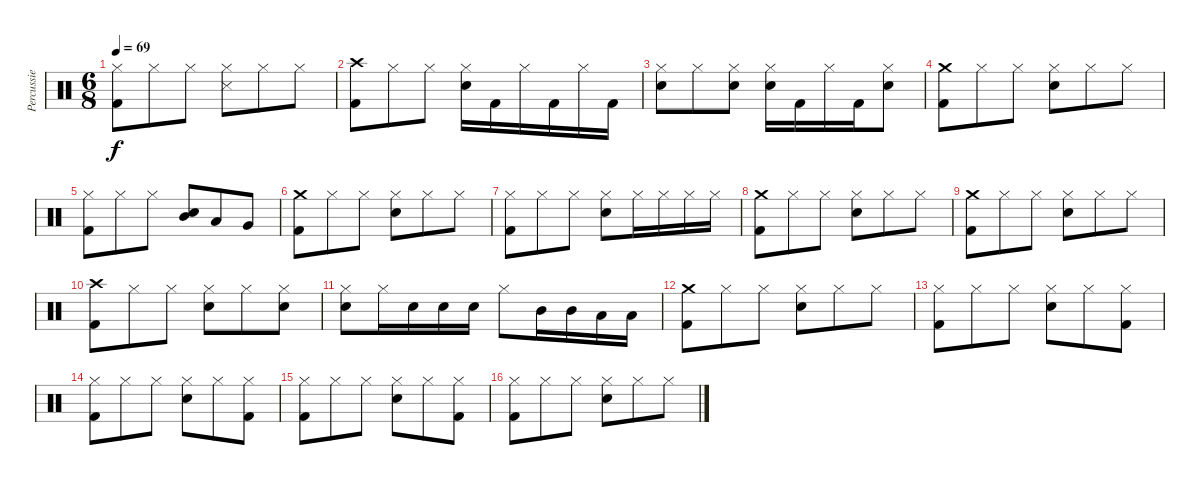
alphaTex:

\track ("Percussie" "Percussie") {instrument percussion}
\staff {score}
\articulation defaults
\ts (6 8)
\tempo 69
\clef neutral
\ks c
("Hi-Hat (closed)" "Kick (hit) 2").8{dy f} "Hi-Hat (closed)".8 "Hi-Hat (closed)".8 ("Hi-Hat (closed)" "Snare (side stick) 3").8 "Hi-Hat (closed)".8 "Hi-Hat (closed)".8 |
("Crash high (hit)" "Kick (hit) 2").8 "Hi-Hat (closed)".8 "Hi-Hat (closed)".8 ("Hi-Hat (closed)" "Snare (hit) 2").16 "Kick (hit) 2".16 "Hi-Hat (closed)".16 "Kick (hit) 2".16 "Hi-Hat (closed)".16 "Kick (hit) 2".16 |
("Hi-Hat (closed)" "Snare (hit) 2").8 "Hi-Hat (closed)".8 ("Hi-Hat (closed)" "Snare (hit) 2").8 ("Hi-Hat (closed)" "Snare (hit) 2").16 "Kick (hit) 2".16 "Hi-Hat (closed)".16 "Kick (hit) 2".16 ("Hi-Hat (closed)" "Snare (hit) 2").8 |
("Crash medium (hit)" "Kick (hit) 2").8 "Hi-Hat (closed)".8 "Hi-Hat (closed)".8 ("Hi-Hat (closed)" "Snare (hit) 2").8 "Hi-Hat (closed)".8 "Hi-Hat (closed)".8 |
("Hi-Hat (closed)" "Kick (hit) 2").8 "Hi-Hat (closed)".8 "Hi-Hat (closed)".8 ("Snare (hit) 2" "Mid Tom (hit)").8 "Low Tom (hit)".8 "Very Low Tom (hit)".8 |
("Crash medium (hit)" "Kick (hit) 2").8 "Hi-Hat (closed)".8 "Hi-Hat (closed)".8 ("Hi-Hat (closed)" "Snare (hit) 2").8 "Hi-Hat (closed)".8 "Hi-Hat (closed)".8 |
("Hi-Hat (closed)" "Kick (hit) 2").8 "Hi-Hat (closed)".8 "Hi-Hat (closed)".8 ("Hi-Hat (closed)" "Snare (hit) 2").8 "Hi-Hat (closed)".16 "Hi-Hat (closed)".16 "Hi-Hat (closed)".16 "Hi-Hat (closed)".16 |
("Crash medium (hit)" "Kick (hit) 2").8 "Hi-Hat (closed)".8 "Hi-Hat (closed)".8 ("Hi-Hat (closed)" "Snare (hit) 2").8 "Hi-Hat (closed)".8 "Hi-Hat (closed)".8 |
("Crash medium (hit)" "Kick (hit) 2").8 "Hi-Hat (closed)".8 "Hi-Hat (closed)".8 ("Hi-Hat (closed)" "Snare (hit) 2").8 "Hi-Hat (closed)".8 "Hi-Hat (closed)".8 |
("Crash high (hit)" "Kick (hit) 2").8 "Hi-Hat (closed)".8 "Hi-Hat (closed)".8 ("Hi-Hat (closed)" "Snare (hit) 2").8 "Hi-Hat (closed)".8 ("Hi-Hat (closed)" "Snare (hit) 2").8 |
("Hi-Hat (closed)" "Snare (hit) 2").8 "Hi-Hat (closed)".16 "Snare (hit) 2".16 "Snare (hit) 2".16 "Snare (hit) 2".16 "Hi-Hat (closed)".8 "Mid Tom (hit)".16 "Mid Tom (hit)".16 "Low Tom (hit)".16 "Low Tom (hit)".16 |
("Crash medium (hit)" "Kick (hit) 2").8 "Hi-Hat (closed)".8 "Hi-Hat (closed)".8 ("Hi-Hat (closed)" "Snare (hit) 2").8 "Hi-Hat (closed)".8 "Hi-Hat (closed)".8 |
("Hi-Hat (closed)" "Kick (hit) 2").8 "Hi-Hat (closed)".8 "Hi-Hat (closed)".8 ("Hi-Hat (closed)" "Snare (hit) 2").8 "Hi-Hat (closed)".8 ("Hi-Hat (closed)" "Kick (hit) 2").8 |
("Hi-Hat (closed)" "Kick (hit) 2").8 "Hi-Hat (closed)".8 "Hi-Hat (closed)".8 ("Hi-Hat (closed)" "Snare (hit) 2").8 "Hi-Hat (closed)".8 ("Hi-Hat (closed)" "Kick (hit) 2").8 |
("Hi-Hat (closed)" "Kick (hit) 2").8 "Hi-Hat (closed)".8 "Hi-Hat (closed)".8 ("Hi-Hat (closed)" "Snare (hit) 2").8 "Hi-Hat (closed)".8 ("Hi-Hat (closed)" "Kick (hit) 2").8 |
("Hi-Hat (closed)" "Kick (hit) 2").8 "Hi-Hat (closed)".8 "Hi-Hat (closed)".8 ("Hi-Hat (closed)" "Snare (hit) 2").8 "Hi-Hat (closed)".8 "Hi-Hat (closed)".8
